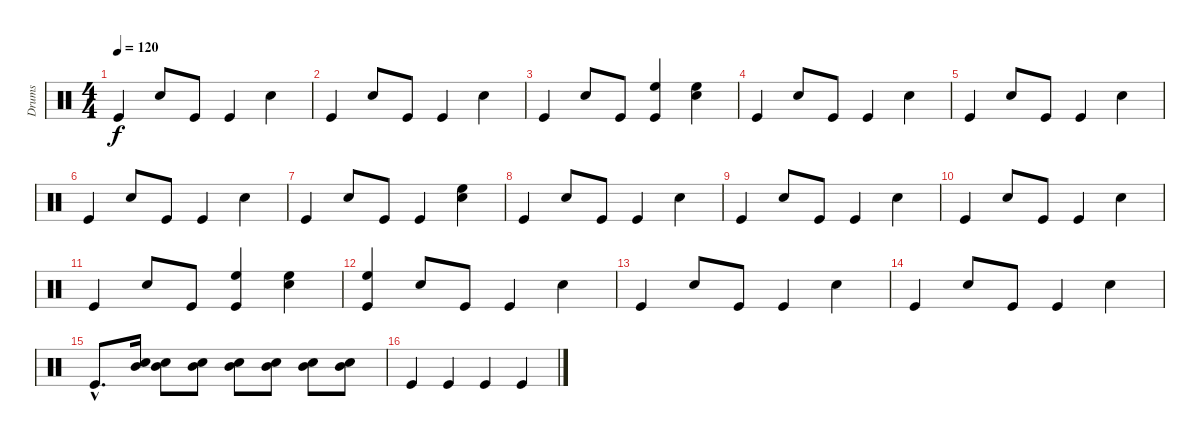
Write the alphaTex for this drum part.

\track ("Drums" "Drums") {instrument percussion}
\staff {score}
\articulation defaults
\ts (4 4)
\tempo 120
\clef neutral
\ks c "Kick (hit)".4{dy f} "Snare (hit) 2".8 "Kick (hit)".8 "Kick (hit)".4 "Snare (hit) 2".4
|
"Kick (hit)".4 "Snare (hit) 2".8 "Kick (hit)".8 "Kick (hit)".4 "Snare (hit) 2".4 |
"Kick (hit)".4 "Snare (hit) 2".8 "Kick (hit)".8 ("High Floor Tom (hit)" "Kick (hit)").4 ("High Floor Tom (hit)" "Snare (hit) 2").4 |
"Kick (hit)".4 "Snare (hit) 2".8 "Kick (hit)".8 "Kick (hit)".4 "Snare (hit) 2".4 |
"Kick (hit)".4 "Snare (hit) 2".8 "Kick (hit)".8 "Kick (hit)".4 "Snare (hit) 2".4 |
"Kick (hit)".4 "Snare (hit) 2".8 "Kick (hit)".8 "Kick (hit)".4 "Snare (hit) 2".4 |
"Kick (hit)".4 "Snare (hit) 2".8 "Kick (hit)".8 "Kick (hit)".4 ("High Floor Tom (hit)" "Snare (hit) 2").4 |
"Kick (hit)".4 "Snare (hit) 2".8 "Kick (hit)".8 "Kick (hit)".4 "Snare (hit) 2".4 |
"Kick (hit)".4 "Snare (hit) 2".8 "Kick (hit)".8 "Kick (hit)".4 "Snare (hit) 2".4 |
"Kick (hit)".4 "Snare (hit) 2".8 "Kick (hit)".8 "Kick (hit)".4 "Snare (hit) 2".4 |
"Kick (hit)".4 "Snare (hit) 2".8 "Kick (hit)".8 ("High Floor Tom (hit)" "Kick (hit)").4 ("High Floor Tom (hit)" "Snare (hit) 2").4 |
("High Floor Tom (hit)" "Kick (hit)").4 "Snare (hit) 2".8 "Kick (hit)".8 "Kick (hit)".4 "Snare (hit) 2".4 |
"Kick (hit)".4 "Snare (hit) 2".8 "Kick (hit)".8 "Kick (hit)".4 "Snare (hit) 2".4 |
"Kick (hit)".4 "Snare (hit) 2".8 "Kick (hit)".8 "Kick (hit)".4 "Snare (hit) 2".4 |
"Kick (hit)"{hac}.8{d} ("Mid Tom (hit)" "Snare (hit) 2").16 ("Mid Tom (hit)" "Snare (hit) 2").8 ("Mid Tom (hit)" "Snare (hit) 2").8 ("Mid Tom (hit)" "Snare (hit) 2").8 ("Mid Tom (hit)" "Snare (hit) 2").8 ("Mid Tom (hit)" "Snare (hit) 2").8 ("Mid Tom (hit)" "Snare (hit) 2").8 |
"Kick (hit)".4 "Kick (hit)".4 "Kick (hit)".4 "Kick (hit)".4
